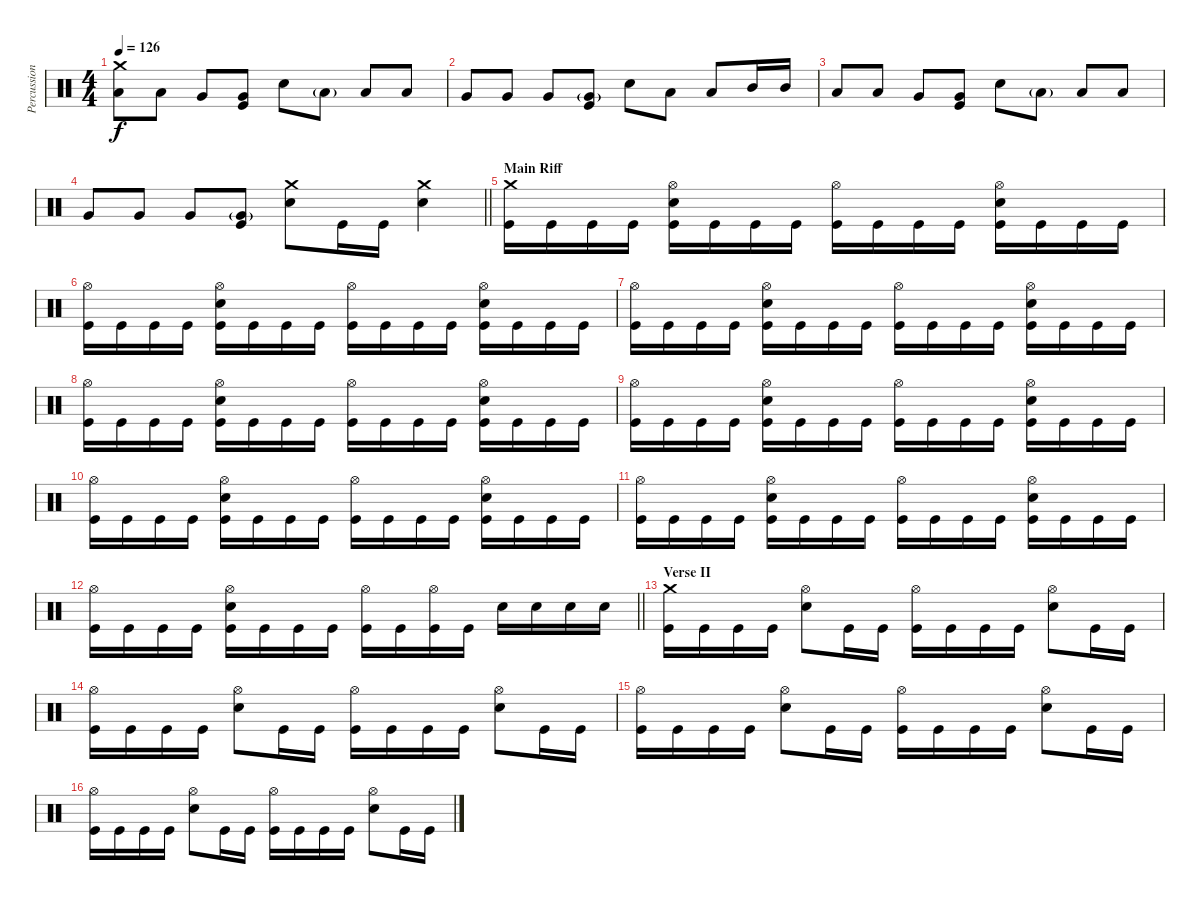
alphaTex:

\track ("Percussion" "Percussion") {instrument percussion}
\staff {score}
\articulation defaults
\ts (4 4)
\tempo 126
\clef neutral
\ks c
("Crash medium (hit)" "Low Floor Tom (hit)").8{dy f} "Low Floor Tom (hit)".8 "Very Low Tom (hit)".8 ("Very Low Tom (hit)" "Kick (hit)").8 "Electric Snare (hit)".8 "Low Floor Tom (hit)"{g}.8 "Low Floor Tom (hit)".8 "Low Floor Tom (hit)".8 |
"Very Low Tom (hit)".8 "Very Low Tom (hit)".8 "Very Low Tom (hit)".8 ("Very Low Tom (hit)"{g} "Kick (hit)").8 "Electric Snare (hit)".8 "Low Tom (hit)".8 "Low Tom (hit)".8 "Mid Tom (hit)".16 "Mid Tom (hit)".16 |
"Low Floor Tom (hit)".8 "Low Floor Tom (hit)".8 "Very Low Tom (hit)".8 ("Very Low Tom (hit)" "Kick (hit)").8 "Electric Snare (hit)".8 "Low Floor Tom (hit)"{g}.8 "Low Floor Tom (hit)".8 "Low Floor Tom (hit)".8 |
\barLineRight lightlight "Very Low Tom (hit)".8 "Very Low Tom (hit)".8 "Very Low Tom (hit)".8
("Very Low Tom (hit)"{g} "Kick (hit)").8 ("Crash medium (hit)" "Electric Snare (hit)").8 "Kick (hit)".16 "Kick (hit)".16 ("Crash medium (hit)" "Electric Snare (hit)").4 |
\section ("" "Main Riff")
("Crash medium (hit)" "Kick (hit)").16 "Kick (hit)".16 "Kick (hit)".16 "Kick (hit)".16 ("Hi-Hat (open)" "Electric Snare (hit)" "Kick (hit)").16 "Kick (hit)".16 "Kick (hit)".16 "Kick (hit)".16 ("Hi-Hat (open)" "Kick (hit)").16 "Kick (hit)".16 "Kick (hit)".16 "Kick (hit)".16 ("Hi-Hat (open)" "Electric Snare (hit)" "Kick (hit)").16 "Kick (hit)".16 "Kick (hit)".16 "Kick (hit)".16 |
("Hi-Hat (open)" "Kick (hit)").16 "Kick (hit)".16 "Kick (hit)".16 "Kick (hit)".16 ("Hi-Hat (open)" "Electric Snare (hit)" "Kick (hit)").16 "Kick (hit)".16 "Kick (hit)".16 "Kick (hit)".16 ("Hi-Hat (open)" "Kick (hit)").16 "Kick (hit)".16 "Kick (hit)".16 "Kick (hit)".16 ("Hi-Hat (open)" "Electric Snare (hit)" "Kick (hit)").16 "Kick (hit)".16 "Kick (hit)".16 "Kick (hit)".16 |
("Hi-Hat (open)" "Kick (hit)").16 "Kick (hit)".16 "Kick (hit)".16 "Kick (hit)".16 ("Hi-Hat (open)" "Electric Snare (hit)" "Kick (hit)").16 "Kick (hit)".16 "Kick (hit)".16 "Kick (hit)".16 ("Hi-Hat (open)" "Kick (hit)").16 "Kick (hit)".16 "Kick (hit)".16 "Kick (hit)".16 ("Hi-Hat (open)" "Electric Snare (hit)" "Kick (hit)").16 "Kick (hit)".16 "Kick (hit)".16 "Kick (hit)".16 |
("Hi-Hat (open)" "Kick (hit)").16 "Kick (hit)".16 "Kick (hit)".16 "Kick (hit)".16 ("Hi-Hat (open)" "Electric Snare (hit)" "Kick (hit)").16 "Kick (hit)".16 "Kick (hit)".16 "Kick (hit)".16 ("Hi-Hat (open)" "Kick (hit)").16 "Kick (hit)".16 "Kick (hit)".16 "Kick (hit)".16 ("Hi-Hat (open)" "Electric Snare (hit)" "Kick (hit)").16 "Kick (hit)".16 "Kick (hit)".16 "Kick (hit)".16 |
("Hi-Hat (open)" "Kick (hit)").16 "Kick (hit)".16 "Kick (hit)".16 "Kick (hit)".16 ("Hi-Hat (open)" "Electric Snare (hit)" "Kick (hit)").16 "Kick (hit)".16 "Kick (hit)".16 "Kick (hit)".16 ("Hi-Hat (open)" "Kick (hit)").16 "Kick (hit)".16 "Kick (hit)".16 "Kick (hit)".16 ("Hi-Hat (open)" "Electric Snare (hit)" "Kick (hit)").16 "Kick (hit)".16 "Kick (hit)".16 "Kick (hit)".16 |
("Hi-Hat (open)" "Kick (hit)").16 "Kick (hit)".16 "Kick (hit)".16 "Kick (hit)".16 ("Hi-Hat (open)" "Electric Snare (hit)" "Kick (hit)").16 "Kick (hit)".16 "Kick (hit)".16 "Kick (hit)".16 ("Hi-Hat (open)" "Kick (hit)").16 "Kick (hit)".16 "Kick (hit)".16 "Kick (hit)".16 ("Hi-Hat (open)" "Electric Snare (hit)" "Kick (hit)").16 "Kick (hit)".16 "Kick (hit)".16 "Kick (hit)".16 |
("Hi-Hat (open)" "Kick (hit)").16 "Kick (hit)".16 "Kick (hit)".16 "Kick (hit)".16 ("Hi-Hat (open)" "Electric Snare (hit)" "Kick (hit)").16 "Kick (hit)".16 "Kick (hit)".16 "Kick (hit)".16 ("Hi-Hat (open)" "Kick (hit)").16 "Kick (hit)".16 "Kick (hit)".16 "Kick (hit)".16 ("Hi-Hat (open)" "Electric Snare (hit)" "Kick (hit)").16 "Kick (hit)".16 "Kick (hit)".16 "Kick (hit)".16 |
\barLineRight lightlight
("Hi-Hat (open)" "Kick (hit)").16 "Kick (hit)".16 "Kick (hit)".16 "Kick (hit)".16 ("Hi-Hat (open)" "Electric Snare (hit)" "Kick (hit)").16 "Kick (hit)".16 "Kick (hit)".16 "Kick (hit)".16 ("Hi-Hat (open)" "Kick (hit)").16 "Kick (hit)".16 ("Hi-Hat (open)" "Kick (hit)").16 "Kick (hit)".16 "Electric Snare (hit)".16 "Electric Snare (hit)".16 "Electric Snare (hit)".16 "Electric Snare (hit)".16 |
\section ("" "Verse II")
("Crash medium (hit)" "Kick (hit)").16 "Kick (hit)".16 "Kick (hit)".16 "Kick (hit)".16 ("Hi-Hat (open)" "Electric Snare (hit)").8 "Kick (hit)".16 "Kick (hit)".16 ("Hi-Hat (open)" "Kick (hit)").16 "Kick (hit)".16 "Kick (hit)".16 "Kick (hit)".16 ("Hi-Hat (open)" "Electric Snare (hit)").8 "Kick (hit)".16 "Kick (hit)".16 |
("Hi-Hat (open)" "Kick (hit)").16 "Kick (hit)".16 "Kick (hit)".16 "Kick (hit)".16 ("Hi-Hat (open)" "Electric Snare (hit)").8 "Kick (hit)".16 "Kick (hit)".16 ("Hi-Hat (open)" "Kick (hit)").16 "Kick (hit)".16 "Kick (hit)".16 "Kick (hit)".16 ("Hi-Hat (open)" "Electric Snare (hit)").8 "Kick (hit)".16 "Kick (hit)".16 |
("Hi-Hat (open)" "Kick (hit)").16 "Kick (hit)".16 "Kick (hit)".16 "Kick (hit)".16 ("Hi-Hat (open)" "Electric Snare (hit)").8 "Kick (hit)".16 "Kick (hit)".16 ("Hi-Hat (open)" "Kick (hit)").16 "Kick (hit)".16 "Kick (hit)".16 "Kick (hit)".16 ("Hi-Hat (open)" "Electric Snare (hit)").8 "Kick (hit)".16 "Kick (hit)".16 |
("Hi-Hat (open)" "Kick (hit)").16 "Kick (hit)".16 "Kick (hit)".16 "Kick (hit)".16 ("Hi-Hat (open)" "Electric Snare (hit)").8 "Kick (hit)".16 "Kick (hit)".16 ("Hi-Hat (open)" "Kick (hit)").16 "Kick (hit)".16 "Kick (hit)".16 "Kick (hit)".16 ("Hi-Hat (open)" "Electric Snare (hit)").8 "Kick (hit)".16 "Kick (hit)".16
